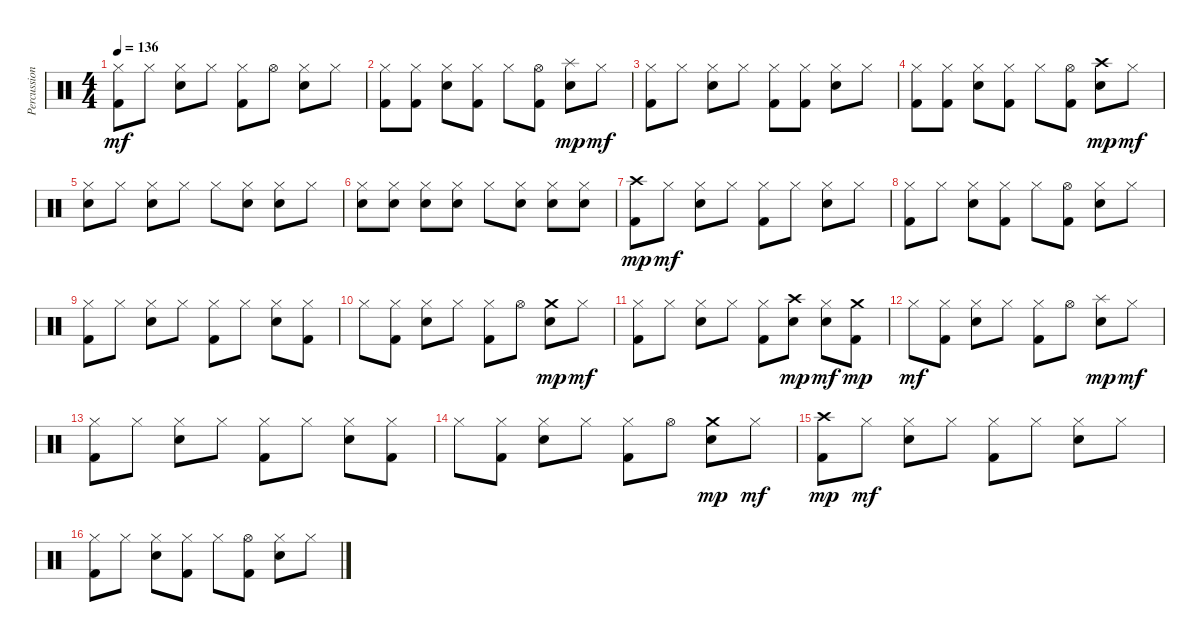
\track ("Percussions" "Percussion") {instrument percussion}
\staff {score}
\articulation defaults
\ts (4 4)
\tempo 136
\clef neutral
\ks c
("Hi-Hat (closed)" "Kick (hit) 2").8{dy mf} "Hi-Hat (closed)".8 ("Hi-Hat (closed)" "Electric Snare (hit)").8 "Hi-Hat (closed)".8 ("Hi-Hat (closed)" "Kick (hit) 2").8 "Hi-Hat (open)".8 ("Hi-Hat (closed)" "Electric Snare (hit)").8 "Hi-Hat (closed)".8 |
("Hi-Hat (closed)" "Kick (hit) 2").8 ("Hi-Hat (closed)" "Kick (hit) 2").8 ("Hi-Hat (closed)" "Electric Snare (hit)").8 ("Hi-Hat (closed)" "Kick (hit) 2").8 "Hi-Hat (closed)".8 ("Hi-Hat (open)" "Kick (hit) 2").8 ("Splash (hit)" "Electric Snare (hit)").8{dy mp} "Hi-Hat (closed)".8{dy mf} |
("Hi-Hat (closed)" "Kick (hit) 2").8 "Hi-Hat (closed)".8 ("Hi-Hat (closed)" "Electric Snare (hit)").8 "Hi-Hat (closed)".8 ("Hi-Hat (closed)" "Kick (hit) 2").8 ("Hi-Hat (closed)" "Kick (hit) 2").8 ("Hi-Hat (closed)" "Electric Snare (hit)").8 "Hi-Hat (closed)".8 |
("Hi-Hat (closed)" "Kick (hit) 2").8 ("Hi-Hat (closed)" "Kick (hit) 2").8 ("Hi-Hat (closed)" "Electric Snare (hit)").8 ("Hi-Hat (closed)" "Kick (hit) 2").8 "Hi-Hat (closed)".8 ("Hi-Hat (open)" "Kick (hit) 2").8 ("Crash high (hit)" "Electric Snare (hit)").8{dy mp} "Hi-Hat (closed)".8{dy mf} |
("Hi-Hat (closed)" "Electric Snare (hit)").8 "Hi-Hat (closed)".8 ("Hi-Hat (closed)" "Electric Snare (hit)").8 "Hi-Hat (closed)".8 "Hi-Hat (closed)".8 ("Hi-Hat (closed)" "Electric Snare (hit)").8 ("Hi-Hat (closed)" "Electric Snare (hit)").8 "Hi-Hat (closed)".8 |
("Hi-Hat (closed)" "Electric Snare (hit)").8 ("Hi-Hat (closed)" "Electric Snare (hit)").8 ("Hi-Hat (closed)" "Electric Snare (hit)").8 ("Hi-Hat (closed)" "Electric Snare (hit)").8 "Hi-Hat (closed)".8 ("Hi-Hat (closed)" "Electric Snare (hit)").8 ("Hi-Hat (closed)" "Electric Snare (hit)").8 ("Hi-Hat (closed)" "Electric Snare (hit)").8 |
("Crash high (hit)" "Kick (hit) 2").8{dy mp} "Hi-Hat (closed)".8{dy mf} ("Hi-Hat (closed)" "Electric Snare (hit)").8 "Hi-Hat (closed)".8 ("Hi-Hat (closed)" "Kick (hit) 2").8 "Hi-Hat (closed)".8 ("Hi-Hat (closed)" "Electric Snare (hit)").8 "Hi-Hat (closed)".8 |
("Hi-Hat (closed)" "Kick (hit) 2").8 "Hi-Hat (closed)".8 ("Hi-Hat (closed)" "Electric Snare (hit)").8 ("Hi-Hat (closed)" "Kick (hit) 2").8 "Hi-Hat (closed)".8 ("Hi-Hat (open)" "Kick (hit) 2").8 ("Hi-Hat (closed)" "Electric Snare (hit)").8 "Hi-Hat (closed)".8 |
("Hi-Hat (closed)" "Kick (hit) 2").8 "Hi-Hat (closed)".8 ("Hi-Hat (closed)" "Electric Snare (hit)").8 "Hi-Hat (closed)".8 ("Hi-Hat (closed)" "Kick (hit) 2").8 "Hi-Hat (closed)".8 ("Hi-Hat (closed)" "Electric Snare (hit)").8 ("Hi-Hat (closed)" "Kick (hit) 2").8 |
"Hi-Hat (closed)".8 ("Hi-Hat (closed)" "Kick (hit) 2").8 ("Hi-Hat (closed)" "Electric Snare (hit)").8 "Hi-Hat (closed)".8 ("Hi-Hat (closed)" "Kick (hit) 2").8 "Hi-Hat (open)".8 ("Crash medium (hit)" "Electric Snare (hit)").8{dy mp} "Hi-Hat (closed)".8{dy mf} |
("Hi-Hat (closed)" "Kick (hit) 2").8 "Hi-Hat (closed)".8 ("Hi-Hat (closed)" "Electric Snare (hit)").8 "Hi-Hat (closed)".8 ("Hi-Hat (closed)" "Kick (hit) 2").8 ("Crash high (hit)" "Electric Snare (hit)").8{dy mp} ("Hi-Hat (closed)" "Electric Snare (hit)").8{dy mf} ("Crash medium (hit)" "Kick (hit) 2").8{dy mp} |
"Hi-Hat (closed)".8{dy mf} ("Hi-Hat (closed)" "Kick (hit) 2").8 ("Hi-Hat (closed)" "Electric Snare (hit)").8 "Hi-Hat (closed)".8 ("Hi-Hat (closed)" "Kick (hit) 2").8 "Hi-Hat (open)".8 ("Splash (hit)" "Electric Snare (hit)").8{dy mp} "Hi-Hat (closed)".8{dy mf} |
("Hi-Hat (closed)" "Kick (hit) 2").8 "Hi-Hat (closed)".8 ("Hi-Hat (closed)" "Electric Snare (hit)").8 "Hi-Hat (closed)".8 ("Hi-Hat (closed)" "Kick (hit) 2").8 "Hi-Hat (closed)".8 ("Hi-Hat (closed)" "Electric Snare (hit)").8 ("Hi-Hat (closed)" "Kick (hit) 2").8 |
"Hi-Hat (closed)".8 ("Hi-Hat (closed)" "Kick (hit) 2").8 ("Hi-Hat (closed)" "Electric Snare (hit)").8 "Hi-Hat (closed)".8 ("Hi-Hat (closed)" "Kick (hit) 2").8 "Hi-Hat (open)".8 ("Crash medium (hit)" "Electric Snare (hit)").8{dy mp} "Hi-Hat (closed)".8{dy mf} |
("Crash high (hit)" "Kick (hit) 2").8{dy mp} "Hi-Hat (closed)".8{dy mf} ("Hi-Hat (closed)" "Electric Snare (hit)").8 "Hi-Hat (closed)".8 ("Hi-Hat (closed)" "Kick (hit) 2").8 "Hi-Hat (closed)".8 ("Hi-Hat (closed)" "Electric Snare (hit)").8 "Hi-Hat (closed)".8 |
("Hi-Hat (closed)" "Kick (hit) 2").8 "Hi-Hat (closed)".8 ("Hi-Hat (closed)" "Electric Snare (hit)").8 ("Hi-Hat (closed)" "Kick (hit) 2").8 "Hi-Hat (closed)".8 ("Hi-Hat (open)" "Kick (hit) 2").8 ("Hi-Hat (closed)" "Electric Snare (hit)").8 "Hi-Hat (closed)".8
